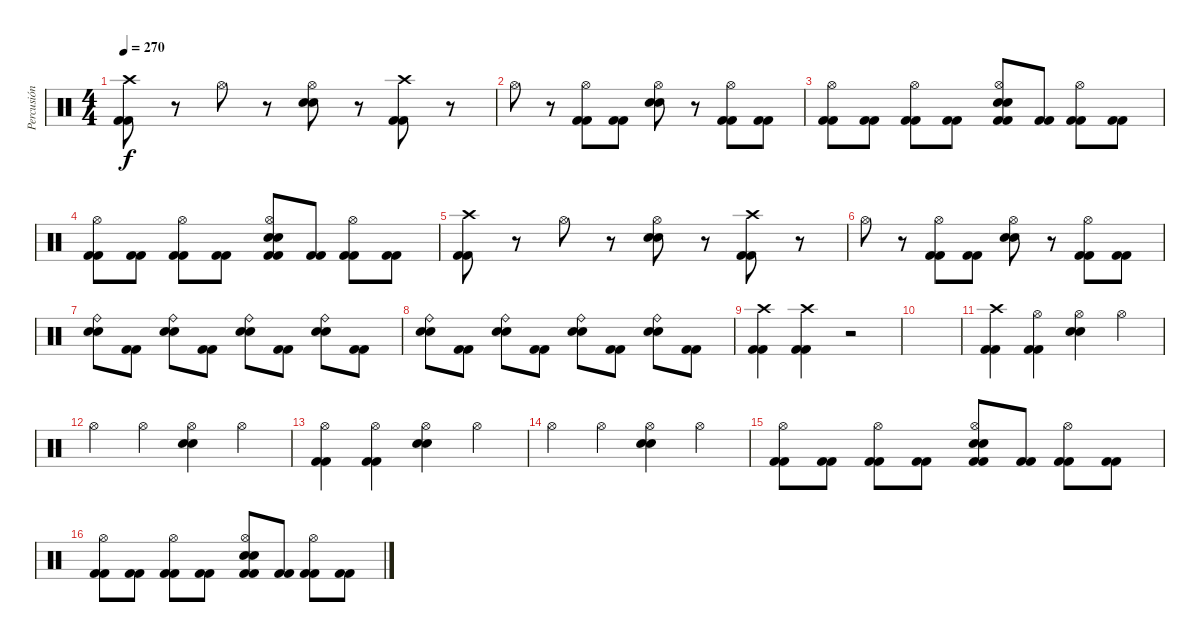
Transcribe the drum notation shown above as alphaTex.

\track ("Percusión" "Percusión") {instrument percussion}
\staff {score}
\articulation defaults
\ts (4 4)
\tempo 270
\clef neutral
\ks c
("Kick (hit) 2" "Kick (hit) 2" "Crash high (hit)").8{dy f} r.8 "Hi-Hat (open)".8 r.8 ("Electric Snare (hit)" "Electric Snare (hit)" "Hi-Hat (open)").8 r.8 ("Kick (hit) 2" "Kick (hit) 2" "Crash high (hit)").8 r.8 |
"Hi-Hat (open)".8 r.8 ("Kick (hit) 2" "Kick (hit) 2" "Hi-Hat (open)").8 ("Kick (hit) 2" "Kick (hit) 2").8 ("Electric Snare (hit)" "Electric Snare (hit)" "Hi-Hat (open)").8 r.8 ("Kick (hit) 2" "Kick (hit) 2" "Hi-Hat (open)").8 ("Kick (hit) 2" "Kick (hit) 2").8 |
("Kick (hit) 2" "Kick (hit) 2" "Hi-Hat (open)").8 ("Kick (hit) 2" "Kick (hit) 2").8 ("Kick (hit) 2" "Kick (hit) 2" "Hi-Hat (open)").8 ("Kick (hit) 2" "Kick (hit) 2").8 ("Kick (hit) 2" "Kick (hit) 2" "Electric Snare (hit)" "Electric Snare (hit)" "Hi-Hat (open)").8 ("Kick (hit) 2" "Kick (hit) 2").8 ("Kick (hit) 2" "Kick (hit) 2" "Hi-Hat (open)").8 ("Kick (hit) 2" "Kick (hit) 2").8 |
("Kick (hit) 2" "Kick (hit) 2" "Hi-Hat (open)").8 ("Kick (hit) 2" "Kick (hit) 2").8 ("Kick (hit) 2" "Kick (hit) 2" "Hi-Hat (open)").8 ("Kick (hit) 2" "Kick (hit) 2").8 ("Kick (hit) 2" "Kick (hit) 2" "Electric Snare (hit)" "Electric Snare (hit)" "Hi-Hat (open)").8 ("Kick (hit) 2" "Kick (hit) 2").8 ("Kick (hit) 2" "Kick (hit) 2" "Hi-Hat (open)").8 ("Kick (hit) 2" "Kick (hit) 2").8 |
("Kick (hit) 2" "Kick (hit) 2" "Crash high (hit)").8 r.8 "Hi-Hat (open)".8 r.8 ("Electric Snare (hit)" "Electric Snare (hit)" "Hi-Hat (open)").8 r.8 ("Kick (hit) 2" "Kick (hit) 2" "Crash high (hit)").8 r.8 |
"Hi-Hat (open)".8 r.8 ("Kick (hit) 2" "Kick (hit) 2" "Hi-Hat (open)").8 ("Kick (hit) 2" "Kick (hit) 2").8 ("Electric Snare (hit)" "Electric Snare (hit)" "Hi-Hat (open)").8 r.8 ("Kick (hit) 2" "Kick (hit) 2" "Hi-Hat (open)").8 ("Kick (hit) 2" "Kick (hit) 2").8 |
("Electric Snare (hit)" "Electric Snare (hit)" "Ride (bell)").8 ("Kick (hit) 2" "Kick (hit) 2").8 ("Electric Snare (hit)" "Electric Snare (hit)" "Ride (bell)").8 ("Kick (hit) 2" "Kick (hit) 2").8 ("Electric Snare (hit)" "Electric Snare (hit)" "Ride (bell)").8 ("Kick (hit) 2" "Kick (hit) 2").8 ("Electric Snare (hit)" "Electric Snare (hit)" "Ride (bell)").8 ("Kick (hit) 2" "Kick (hit) 2").8 |
("Electric Snare (hit)" "Electric Snare (hit)" "Ride (bell)").8 ("Kick (hit) 2" "Kick (hit) 2").8 ("Electric Snare (hit)" "Electric Snare (hit)" "Ride (bell)").8 ("Kick (hit) 2" "Kick (hit) 2").8 ("Electric Snare (hit)" "Electric Snare (hit)" "Ride (bell)").8 ("Kick (hit) 2" "Kick (hit) 2").8 ("Electric Snare (hit)" "Electric Snare (hit)" "Ride (bell)").8 ("Kick (hit) 2" "Kick (hit) 2").8 |
("Kick (hit) 2" "Kick (hit) 2" "Crash high (hit)").4 ("Kick (hit) 2" "Kick (hit) 2" "Crash high (hit)").4 r.2 |
|
("Kick (hit) 2" "Kick (hit) 2" "Crash high (hit)").4 ("Kick (hit) 2" "Kick (hit) 2" "Hi-Hat (open)").4 ("Electric Snare (hit)" "Electric Snare (hit)" "Hi-Hat (open)").4 "Hi-Hat (open)".4 |
"Hi-Hat (open)".4 "Hi-Hat (open)".4 ("Electric Snare (hit)" "Electric Snare (hit)" "Hi-Hat (open)").4 "Hi-Hat (open)".4 |
("Kick (hit) 2" "Kick (hit) 2" "Hi-Hat (open)").4 ("Kick (hit) 2" "Kick (hit) 2" "Hi-Hat (open)").4 ("Electric Snare (hit)" "Electric Snare (hit)" "Hi-Hat (open)").4 "Hi-Hat (open)".4 |
"Hi-Hat (open)".4 "Hi-Hat (open)".4 ("Electric Snare (hit)" "Electric Snare (hit)" "Hi-Hat (open)").4 "Hi-Hat (open)".4 |
("Kick (hit) 2" "Kick (hit) 2" "Hi-Hat (open)").8 ("Kick (hit) 2" "Kick (hit) 2").8 ("Kick (hit) 2" "Kick (hit) 2" "Hi-Hat (open)").8 ("Kick (hit) 2" "Kick (hit) 2").8 ("Kick (hit) 2" "Kick (hit) 2" "Electric Snare (hit)" "Electric Snare (hit)" "Hi-Hat (open)").8 ("Kick (hit) 2" "Kick (hit) 2").8 ("Kick (hit) 2" "Kick (hit) 2" "Hi-Hat (open)").8 ("Kick (hit) 2" "Kick (hit) 2").8 |
("Kick (hit) 2" "Kick (hit) 2" "Hi-Hat (open)").8 ("Kick (hit) 2" "Kick (hit) 2").8 ("Kick (hit) 2" "Kick (hit) 2" "Hi-Hat (open)").8 ("Kick (hit) 2" "Kick (hit) 2").8 ("Kick (hit) 2" "Kick (hit) 2" "Electric Snare (hit)" "Electric Snare (hit)" "Hi-Hat (open)").8 ("Kick (hit) 2" "Kick (hit) 2").8 ("Kick (hit) 2" "Kick (hit) 2" "Hi-Hat (open)").8 ("Kick (hit) 2" "Kick (hit) 2").8
